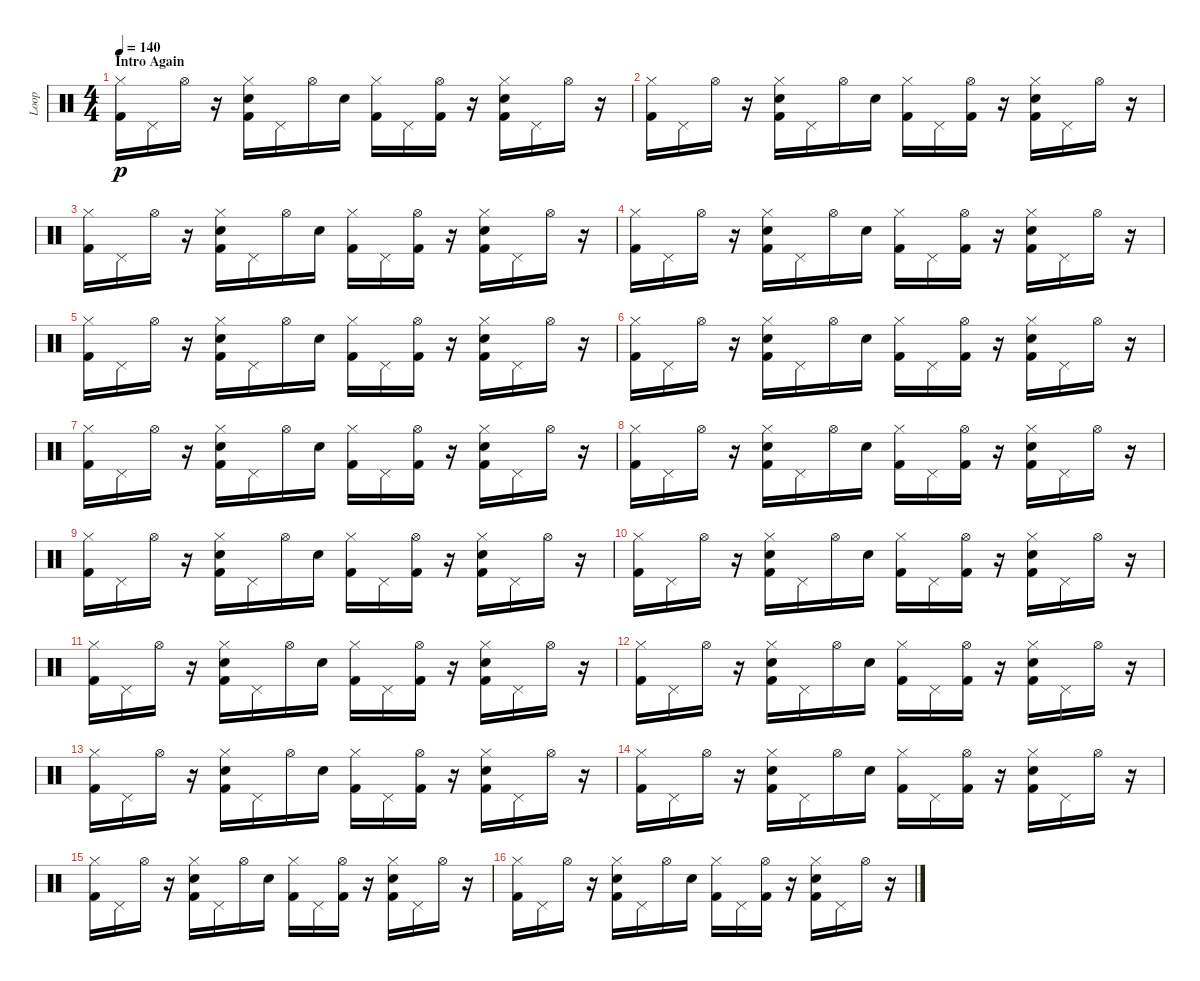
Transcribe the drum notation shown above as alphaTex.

\track ("Loop" "Loop") {instrument percussion}
\staff {score}
\articulation defaults
\ts (4 4)
\section ("" "Intro Again")
\tempo 140
\clef neutral
\ks c
("Hi-Hat (closed)" "Kick (hit) 2").16{dy p} "Pedal Hi-Hat (hit)".16 "Hi-Hat (open)".16 r.16 ("Hi-Hat (closed)" "Hand Clap (hit)" "Kick (hit) 2").16 "Pedal Hi-Hat (hit)".16 "Hi-Hat (open)".16 "Hand Clap (hit)".16 ("Hi-Hat (closed)" "Kick (hit) 2").16 "Pedal Hi-Hat (hit)".16 ("Hi-Hat (open)" "Kick (hit) 2").16 r.16 ("Hi-Hat (closed)" "Hand Clap (hit)" "Kick (hit) 2").16 "Pedal Hi-Hat (hit)".16 "Hi-Hat (open)".16 r.16 |
("Hi-Hat (closed)" "Kick (hit) 2").16 "Pedal Hi-Hat (hit)".16 "Hi-Hat (open)".16 r.16 ("Hi-Hat (closed)" "Hand Clap (hit)" "Kick (hit) 2").16 "Pedal Hi-Hat (hit)".16 "Hi-Hat (open)".16 "Hand Clap (hit)".16 ("Hi-Hat (closed)" "Kick (hit) 2").16 "Pedal Hi-Hat (hit)".16 ("Hi-Hat (open)" "Kick (hit) 2").16 r.16 ("Hi-Hat (closed)" "Hand Clap (hit)" "Kick (hit) 2").16 "Pedal Hi-Hat (hit)".16 "Hi-Hat (open)".16 r.16 |
("Hi-Hat (closed)" "Kick (hit) 2").16 "Pedal Hi-Hat (hit)".16 "Hi-Hat (open)".16 r.16 ("Hi-Hat (closed)" "Hand Clap (hit)" "Kick (hit) 2").16 "Pedal Hi-Hat (hit)".16 "Hi-Hat (open)".16 "Hand Clap (hit)".16 ("Hi-Hat (closed)" "Kick (hit) 2").16 "Pedal Hi-Hat (hit)".16 ("Hi-Hat (open)" "Kick (hit) 2").16 r.16 ("Hi-Hat (closed)" "Hand Clap (hit)" "Kick (hit) 2").16 "Pedal Hi-Hat (hit)".16 "Hi-Hat (open)".16 r.16 |
("Hi-Hat (closed)" "Kick (hit) 2").16 "Pedal Hi-Hat (hit)".16 "Hi-Hat (open)".16 r.16 ("Hi-Hat (closed)" "Hand Clap (hit)" "Kick (hit) 2").16 "Pedal Hi-Hat (hit)".16 "Hi-Hat (open)".16 "Hand Clap (hit)".16 ("Hi-Hat (closed)" "Kick (hit) 2").16 "Pedal Hi-Hat (hit)".16 ("Hi-Hat (open)" "Kick (hit) 2").16 r.16 ("Hi-Hat (closed)" "Hand Clap (hit)" "Kick (hit) 2").16 "Pedal Hi-Hat (hit)".16 "Hi-Hat (open)".16 r.16 |
("Hi-Hat (closed)" "Kick (hit) 2").16 "Pedal Hi-Hat (hit)".16 "Hi-Hat (open)".16 r.16 ("Hi-Hat (closed)" "Hand Clap (hit)" "Kick (hit) 2").16 "Pedal Hi-Hat (hit)".16 "Hi-Hat (open)".16 "Hand Clap (hit)".16 ("Hi-Hat (closed)" "Kick (hit) 2").16 "Pedal Hi-Hat (hit)".16 ("Hi-Hat (open)" "Kick (hit) 2").16 r.16 ("Hi-Hat (closed)" "Hand Clap (hit)" "Kick (hit) 2").16 "Pedal Hi-Hat (hit)".16 "Hi-Hat (open)".16 r.16 |
("Hi-Hat (closed)" "Kick (hit) 2").16 "Pedal Hi-Hat (hit)".16 "Hi-Hat (open)".16 r.16 ("Hi-Hat (closed)" "Hand Clap (hit)" "Kick (hit) 2").16 "Pedal Hi-Hat (hit)".16 "Hi-Hat (open)".16 "Hand Clap (hit)".16 ("Hi-Hat (closed)" "Kick (hit) 2").16 "Pedal Hi-Hat (hit)".16 ("Hi-Hat (open)" "Kick (hit) 2").16 r.16 ("Hi-Hat (closed)" "Hand Clap (hit)" "Kick (hit) 2").16 "Pedal Hi-Hat (hit)".16 "Hi-Hat (open)".16 r.16 |
("Hi-Hat (closed)" "Kick (hit) 2").16 "Pedal Hi-Hat (hit)".16 "Hi-Hat (open)".16 r.16 ("Hi-Hat (closed)" "Hand Clap (hit)" "Kick (hit) 2").16 "Pedal Hi-Hat (hit)".16 "Hi-Hat (open)".16 "Hand Clap (hit)".16 ("Hi-Hat (closed)" "Kick (hit) 2").16 "Pedal Hi-Hat (hit)".16 ("Hi-Hat (open)" "Kick (hit) 2").16 r.16 ("Hi-Hat (closed)" "Hand Clap (hit)" "Kick (hit) 2").16 "Pedal Hi-Hat (hit)".16 "Hi-Hat (open)".16 r.16 |
("Hi-Hat (closed)" "Kick (hit) 2").16 "Pedal Hi-Hat (hit)".16 "Hi-Hat (open)".16 r.16 ("Hi-Hat (closed)" "Hand Clap (hit)" "Kick (hit) 2").16 "Pedal Hi-Hat (hit)".16 "Hi-Hat (open)".16 "Hand Clap (hit)".16 ("Hi-Hat (closed)" "Kick (hit) 2").16 "Pedal Hi-Hat (hit)".16 ("Hi-Hat (open)" "Kick (hit) 2").16 r.16 ("Hi-Hat (closed)" "Hand Clap (hit)" "Kick (hit) 2").16 "Pedal Hi-Hat (hit)".16 "Hi-Hat (open)".16 r.16 |
("Hi-Hat (closed)" "Kick (hit) 2").16 "Pedal Hi-Hat (hit)".16 "Hi-Hat (open)".16 r.16 ("Hi-Hat (closed)" "Hand Clap (hit)" "Kick (hit) 2").16 "Pedal Hi-Hat (hit)".16 "Hi-Hat (open)".16 "Hand Clap (hit)".16 ("Hi-Hat (closed)" "Kick (hit) 2").16 "Pedal Hi-Hat (hit)".16 ("Hi-Hat (open)" "Kick (hit) 2").16 r.16 ("Hi-Hat (closed)" "Hand Clap (hit)" "Kick (hit) 2").16 "Pedal Hi-Hat (hit)".16 "Hi-Hat (open)".16 r.16 |
("Hi-Hat (closed)" "Kick (hit) 2").16 "Pedal Hi-Hat (hit)".16 "Hi-Hat (open)".16 r.16 ("Hi-Hat (closed)" "Hand Clap (hit)" "Kick (hit) 2").16 "Pedal Hi-Hat (hit)".16 "Hi-Hat (open)".16 "Hand Clap (hit)".16 ("Hi-Hat (closed)" "Kick (hit) 2").16 "Pedal Hi-Hat (hit)".16 ("Hi-Hat (open)" "Kick (hit) 2").16 r.16 ("Hi-Hat (closed)" "Hand Clap (hit)" "Kick (hit) 2").16 "Pedal Hi-Hat (hit)".16 "Hi-Hat (open)".16 r.16 |
("Hi-Hat (closed)" "Kick (hit) 2").16 "Pedal Hi-Hat (hit)".16 "Hi-Hat (open)".16 r.16 ("Hi-Hat (closed)" "Hand Clap (hit)" "Kick (hit) 2").16 "Pedal Hi-Hat (hit)".16 "Hi-Hat (open)".16 "Hand Clap (hit)".16 ("Hi-Hat (closed)" "Kick (hit) 2").16 "Pedal Hi-Hat (hit)".16 ("Hi-Hat (open)" "Kick (hit) 2").16 r.16 ("Hi-Hat (closed)" "Hand Clap (hit)" "Kick (hit) 2").16 "Pedal Hi-Hat (hit)".16 "Hi-Hat (open)".16 r.16 |
("Hi-Hat (closed)" "Kick (hit) 2").16 "Pedal Hi-Hat (hit)".16 "Hi-Hat (open)".16 r.16 ("Hi-Hat (closed)" "Hand Clap (hit)" "Kick (hit) 2").16 "Pedal Hi-Hat (hit)".16 "Hi-Hat (open)".16 "Hand Clap (hit)".16 ("Hi-Hat (closed)" "Kick (hit) 2").16 "Pedal Hi-Hat (hit)".16 ("Hi-Hat (open)" "Kick (hit) 2").16 r.16 ("Hi-Hat (closed)" "Hand Clap (hit)" "Kick (hit) 2").16 "Pedal Hi-Hat (hit)".16 "Hi-Hat (open)".16 r.16 |
("Hi-Hat (closed)" "Kick (hit) 2").16 "Pedal Hi-Hat (hit)".16 "Hi-Hat (open)".16 r.16 ("Hi-Hat (closed)" "Hand Clap (hit)" "Kick (hit) 2").16 "Pedal Hi-Hat (hit)".16 "Hi-Hat (open)".16 "Hand Clap (hit)".16 ("Hi-Hat (closed)" "Kick (hit) 2").16 "Pedal Hi-Hat (hit)".16 ("Hi-Hat (open)" "Kick (hit) 2").16 r.16 ("Hi-Hat (closed)" "Hand Clap (hit)" "Kick (hit) 2").16 "Pedal Hi-Hat (hit)".16 "Hi-Hat (open)".16 r.16 |
("Hi-Hat (closed)" "Kick (hit) 2").16 "Pedal Hi-Hat (hit)".16 "Hi-Hat (open)".16 r.16 ("Hi-Hat (closed)" "Hand Clap (hit)" "Kick (hit) 2").16 "Pedal Hi-Hat (hit)".16 "Hi-Hat (open)".16 "Hand Clap (hit)".16 ("Hi-Hat (closed)" "Kick (hit) 2").16 "Pedal Hi-Hat (hit)".16 ("Hi-Hat (open)" "Kick (hit) 2").16 r.16 ("Hi-Hat (closed)" "Hand Clap (hit)" "Kick (hit) 2").16 "Pedal Hi-Hat (hit)".16 "Hi-Hat (open)".16 r.16 |
("Hi-Hat (closed)" "Kick (hit) 2").16 "Pedal Hi-Hat (hit)".16 "Hi-Hat (open)".16 r.16 ("Hi-Hat (closed)" "Hand Clap (hit)" "Kick (hit) 2").16 "Pedal Hi-Hat (hit)".16 "Hi-Hat (open)".16 "Hand Clap (hit)".16 ("Hi-Hat (closed)" "Kick (hit) 2").16 "Pedal Hi-Hat (hit)".16 ("Hi-Hat (open)" "Kick (hit) 2").16 r.16 ("Hi-Hat (closed)" "Hand Clap (hit)" "Kick (hit) 2").16 "Pedal Hi-Hat (hit)".16 "Hi-Hat (open)".16 r.16 |
("Hi-Hat (closed)" "Kick (hit) 2").16 "Pedal Hi-Hat (hit)".16 "Hi-Hat (open)".16 r.16 ("Hi-Hat (closed)" "Hand Clap (hit)" "Kick (hit) 2").16 "Pedal Hi-Hat (hit)".16 "Hi-Hat (open)".16 "Hand Clap (hit)".16 ("Hi-Hat (closed)" "Kick (hit) 2").16 "Pedal Hi-Hat (hit)".16 ("Hi-Hat (open)" "Kick (hit) 2").16 r.16 ("Hi-Hat (closed)" "Hand Clap (hit)" "Kick (hit) 2").16 "Pedal Hi-Hat (hit)".16 "Hi-Hat (open)".16 r.16
